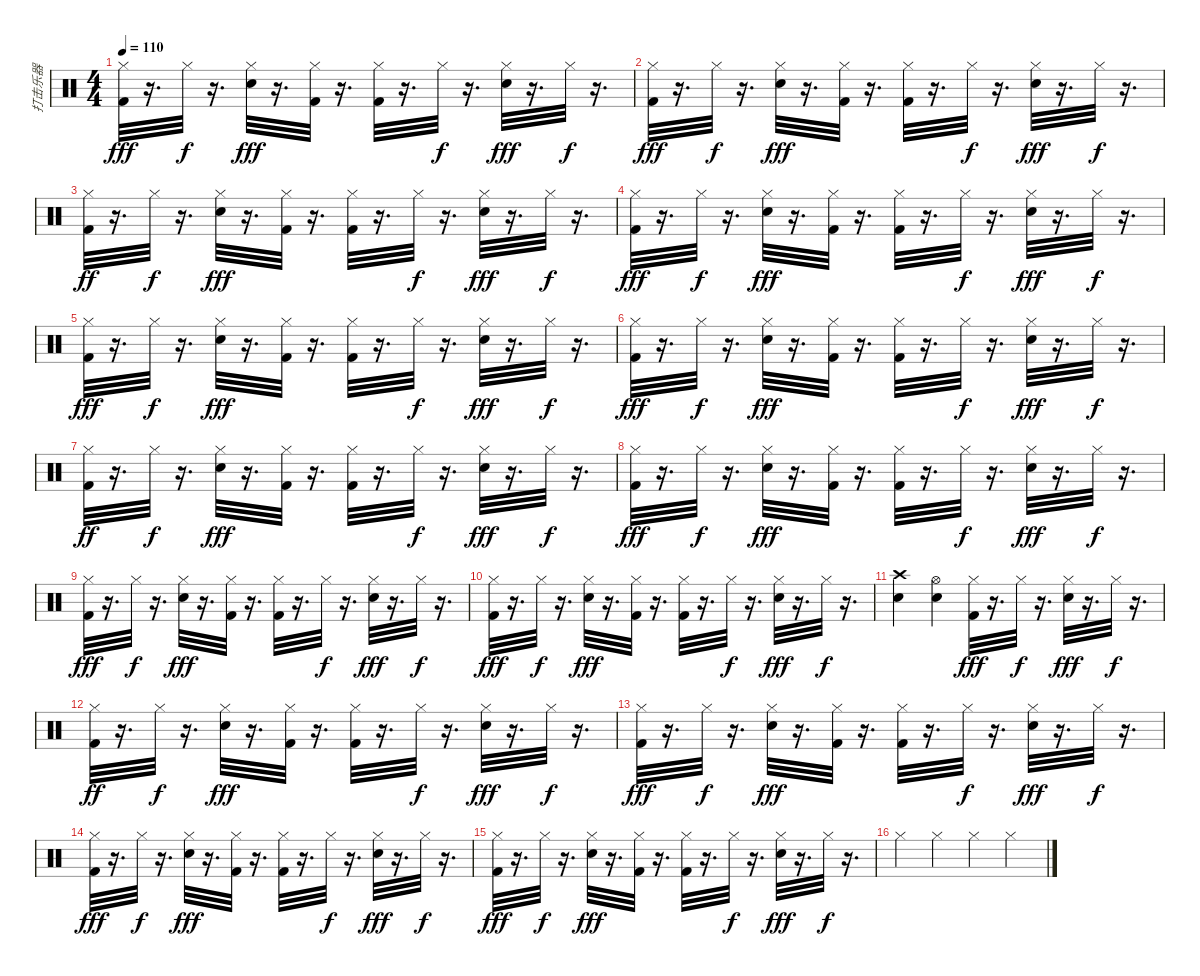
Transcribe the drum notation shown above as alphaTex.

\track ("打击乐器" "打击乐器") {instrument percussion}
\staff {score}
\articulation defaults
\ts (4 4)
\tempo 110
\clef neutral
\ks c
("Kick (hit) 2" "Hi-Hat (closed)").32{dy fff} r.16{d} "Hi-Hat (closed)".32{dy f} r.16{d} ("Hi-Hat (closed)" "Electric Snare (hit)").32{dy fff} r.16{d} ("Kick (hit) 2" "Hi-Hat (closed)").32 r.16{d} ("Kick (hit) 2" "Hi-Hat (closed)").32 r.16{d} "Hi-Hat (closed)".32{dy f} r.16{d} ("Hi-Hat (closed)" "Electric Snare (hit)").32{dy fff} r.16{d} "Hi-Hat (closed)".32{dy f} r.16{d} |
("Kick (hit) 2" "Hi-Hat (closed)").32{dy fff} r.16{d} "Hi-Hat (closed)".32{dy f} r.16{d} ("Hi-Hat (closed)" "Electric Snare (hit)").32{dy fff} r.16{d} ("Kick (hit) 2" "Hi-Hat (closed)").32 r.16{d} ("Kick (hit) 2" "Hi-Hat (closed)").32 r.16{d} "Hi-Hat (closed)".32{dy f} r.16{d} ("Hi-Hat (closed)" "Electric Snare (hit)").32{dy fff} r.16{d} "Hi-Hat (closed)".32{dy f} r.16{d} |
("Kick (hit) 2" "Hi-Hat (closed)").32{dy ff} r.16{d} "Hi-Hat (closed)".32{dy f} r.16{d} ("Hi-Hat (closed)" "Electric Snare (hit)").32{dy fff} r.16{d} ("Kick (hit) 2" "Hi-Hat (closed)").32 r.16{d} ("Kick (hit) 2" "Hi-Hat (closed)").32 r.16{d} "Hi-Hat (closed)".32{dy f} r.16{d} ("Hi-Hat (closed)" "Electric Snare (hit)").32{dy fff} r.16{d} "Hi-Hat (closed)".32{dy f} r.16{d} |
("Kick (hit) 2" "Hi-Hat (closed)").32{dy fff} r.16{d} "Hi-Hat (closed)".32{dy f} r.16{d} ("Hi-Hat (closed)" "Electric Snare (hit)").32{dy fff} r.16{d} ("Kick (hit) 2" "Hi-Hat (closed)").32 r.16{d} ("Kick (hit) 2" "Hi-Hat (closed)").32 r.16{d} "Hi-Hat (closed)".32{dy f} r.16{d} ("Hi-Hat (closed)" "Electric Snare (hit)").32{dy fff} r.16{d} "Hi-Hat (closed)".32{dy f} r.16{d} |
("Kick (hit) 2" "Hi-Hat (closed)").32{dy fff} r.16{d} "Hi-Hat (closed)".32{dy f} r.16{d} ("Hi-Hat (closed)" "Electric Snare (hit)").32{dy fff} r.16{d} ("Kick (hit) 2" "Hi-Hat (closed)").32 r.16{d} ("Kick (hit) 2" "Hi-Hat (closed)").32 r.16{d} "Hi-Hat (closed)".32{dy f} r.16{d} ("Hi-Hat (closed)" "Electric Snare (hit)").32{dy fff} r.16{d} "Hi-Hat (closed)".32{dy f} r.16{d} |
("Kick (hit) 2" "Hi-Hat (closed)").32{dy fff} r.16{d} "Hi-Hat (closed)".32{dy f} r.16{d} ("Hi-Hat (closed)" "Electric Snare (hit)").32{dy fff} r.16{d} ("Kick (hit) 2" "Hi-Hat (closed)").32 r.16{d} ("Kick (hit) 2" "Hi-Hat (closed)").32 r.16{d} "Hi-Hat (closed)".32{dy f} r.16{d} ("Hi-Hat (closed)" "Electric Snare (hit)").32{dy fff} r.16{d} "Hi-Hat (closed)".32{dy f} r.16{d} |
("Kick (hit) 2" "Hi-Hat (closed)").32{dy ff} r.16{d} "Hi-Hat (closed)".32{dy f} r.16{d} ("Hi-Hat (closed)" "Electric Snare (hit)").32{dy fff} r.16{d} ("Kick (hit) 2" "Hi-Hat (closed)").32 r.16{d} ("Kick (hit) 2" "Hi-Hat (closed)").32 r.16{d} "Hi-Hat (closed)".32{dy f} r.16{d} ("Hi-Hat (closed)" "Electric Snare (hit)").32{dy fff} r.16{d} "Hi-Hat (closed)".32{dy f} r.16{d} |
("Kick (hit) 2" "Hi-Hat (closed)").32{dy fff} r.16{d} "Hi-Hat (closed)".32{dy f} r.16{d} ("Hi-Hat (closed)" "Electric Snare (hit)").32{dy fff} r.16{d} ("Kick (hit) 2" "Hi-Hat (closed)").32 r.16{d} ("Kick (hit) 2" "Hi-Hat (closed)").32 r.16{d} "Hi-Hat (closed)".32{dy f} r.16{d} ("Hi-Hat (closed)" "Electric Snare (hit)").32{dy fff} r.16{d} "Hi-Hat (closed)".32{dy f} r.16{d} |
("Kick (hit) 2" "Hi-Hat (closed)").32{dy fff} r.16{d} "Hi-Hat (closed)".32{dy f} r.16{d} ("Hi-Hat (closed)" "Electric Snare (hit)").32{dy fff} r.16{d} ("Kick (hit) 2" "Hi-Hat (closed)").32 r.16{d} ("Kick (hit) 2" "Hi-Hat (closed)").32 r.16{d} "Hi-Hat (closed)".32{dy f} r.16{d} ("Hi-Hat (closed)" "Electric Snare (hit)").32{dy fff} r.16{d} "Hi-Hat (closed)".32{dy f} r.16{d} |
("Kick (hit) 2" "Hi-Hat (closed)").32{dy fff} r.16{d} "Hi-Hat (closed)".32{dy f} r.16{d} ("Hi-Hat (closed)" "Electric Snare (hit)").32{dy fff} r.16{d} ("Kick (hit) 2" "Hi-Hat (closed)").32 r.16{d} ("Kick (hit) 2" "Hi-Hat (closed)").32 r.16{d} "Hi-Hat (closed)".32{dy f} r.16{d} ("Hi-Hat (closed)" "Electric Snare (hit)").32{dy fff} r.16{d} "Hi-Hat (closed)".32{dy f} r.16{d} |
("Crash high (hit)" "Electric Snare (hit)").4 ("Hi-Hat (open)" "Snare (hit) 2").4 ("Kick (hit) 2" "Hi-Hat (closed)").32{dy fff} r.16{d} "Hi-Hat (closed)".32{dy f} r.16{d} ("Hi-Hat (closed)" "Electric Snare (hit)").32{dy fff} r.16{d} "Hi-Hat (closed)".32{dy f} r.16{d} |
("Kick (hit) 2" "Hi-Hat (closed)").32{dy ff} r.16{d} "Hi-Hat (closed)".32{dy f} r.16{d} ("Hi-Hat (closed)" "Electric Snare (hit)").32{dy fff} r.16{d} ("Kick (hit) 2" "Hi-Hat (closed)").32 r.16{d} ("Kick (hit) 2" "Hi-Hat (closed)").32 r.16{d} "Hi-Hat (closed)".32{dy f} r.16{d} ("Hi-Hat (closed)" "Electric Snare (hit)").32{dy fff} r.16{d} "Hi-Hat (closed)".32{dy f} r.16{d} |
("Kick (hit) 2" "Hi-Hat (closed)").32{dy fff} r.16{d} "Hi-Hat (closed)".32{dy f} r.16{d} ("Hi-Hat (closed)" "Electric Snare (hit)").32{dy fff} r.16{d} ("Kick (hit) 2" "Hi-Hat (closed)").32 r.16{d} ("Kick (hit) 2" "Hi-Hat (closed)").32 r.16{d} "Hi-Hat (closed)".32{dy f} r.16{d} ("Hi-Hat (closed)" "Electric Snare (hit)").32{dy fff} r.16{d} "Hi-Hat (closed)".32{dy f} r.16{d} |
("Kick (hit) 2" "Hi-Hat (closed)").32{dy fff} r.16{d} "Hi-Hat (closed)".32{dy f} r.16{d} ("Hi-Hat (closed)" "Electric Snare (hit)").32{dy fff} r.16{d} ("Kick (hit) 2" "Hi-Hat (closed)").32 r.16{d} ("Kick (hit) 2" "Hi-Hat (closed)").32 r.16{d} "Hi-Hat (closed)".32{dy f} r.16{d} ("Hi-Hat (closed)" "Electric Snare (hit)").32{dy fff} r.16{d} "Hi-Hat (closed)".32{dy f} r.16{d} |
("Kick (hit) 2" "Hi-Hat (closed)").32{dy fff} r.16{d} "Hi-Hat (closed)".32{dy f} r.16{d} ("Hi-Hat (closed)" "Electric Snare (hit)").32{dy fff} r.16{d} ("Kick (hit) 2" "Hi-Hat (closed)").32 r.16{d} ("Kick (hit) 2" "Hi-Hat (closed)").32 r.16{d} "Hi-Hat (closed)".32{dy f} r.16{d} ("Hi-Hat (closed)" "Electric Snare (hit)").32{dy fff} r.16{d} "Hi-Hat (closed)".32{dy f} r.16{d} |
"Hi-Hat (closed)".4 "Hi-Hat (closed)".4 "Hi-Hat (closed)".4 "Hi-Hat (closed)".4
